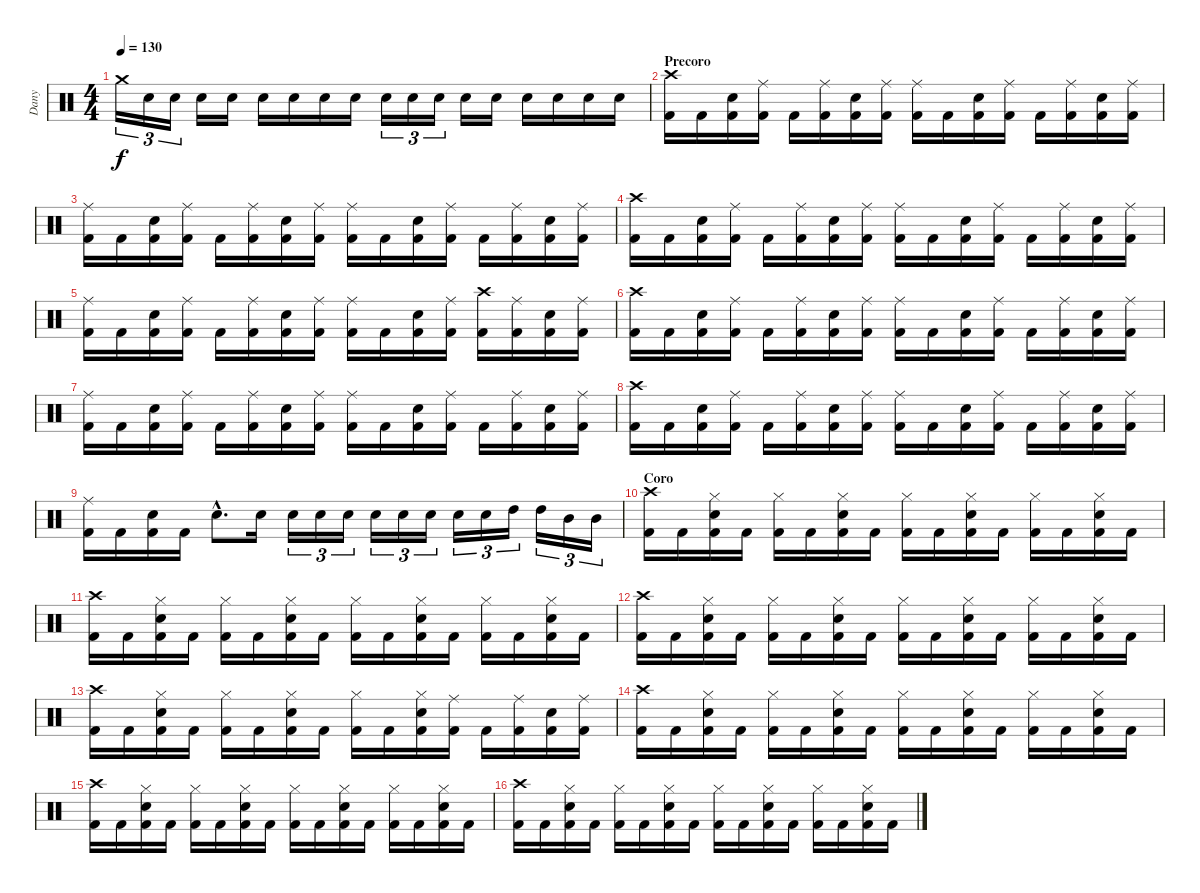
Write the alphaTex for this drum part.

\track ("Dany" "Dany") {instrument percussion}
\staff {score}
\articulation defaults
\ts (4 4)
\tempo 130
\clef neutral
\ks c "Crash medium (hit)".16{tu (3 2) dy f} "Electric Snare (hit)".16{tu (3 2)} "Electric Snare (hit)".16{tu (3 2)} "Electric Snare (hit)".16 "Electric Snare (hit)".16 "Electric Snare (hit)".16 "Electric Snare (hit)".16 "Electric Snare (hit)".16 "Electric Snare (hit)".16 "Electric Snare (hit)".16{tu (3 2)} "Electric Snare (hit)".16{tu (3 2)} "Electric Snare (hit)".16{tu (3 2)} "Electric Snare (hit)".16 "Electric Snare (hit)".16 "Electric Snare (hit)".16 "Electric Snare (hit)".16 "Electric Snare (hit)".16 "Electric Snare (hit)".16
|
\section ("" "Precoro")
("Kick (hit) 2" "Crash high (hit)").16 "Kick (hit) 2".16 ("Kick (hit) 2" "Electric Snare (hit)").16 ("Kick (hit) 2" "Ride (middle)").16 "Kick (hit) 2".16 ("Kick (hit) 2" "Ride (middle)").16 ("Kick (hit) 2" "Electric Snare (hit)").16 ("Kick (hit) 2" "Ride (middle)").16 ("Kick (hit) 2" "Ride (middle)").16 "Kick (hit) 2".16 ("Kick (hit) 2" "Electric Snare (hit)").16 ("Kick (hit) 2" "Ride (middle)").16 "Kick (hit) 2".16 ("Kick (hit) 2" "Ride (middle)").16 ("Kick (hit) 2" "Electric Snare (hit)").16 ("Kick (hit) 2" "Ride (middle)").16 |
("Kick (hit) 2" "Ride (middle)").16 "Kick (hit) 2".16 ("Kick (hit) 2" "Electric Snare (hit)").16 ("Kick (hit) 2" "Ride (middle)").16 "Kick (hit) 2".16 ("Kick (hit) 2" "Ride (middle)").16 ("Kick (hit) 2" "Electric Snare (hit)").16 ("Kick (hit) 2" "Ride (middle)").16 ("Kick (hit) 2" "Ride (middle)").16 "Kick (hit) 2".16 ("Kick (hit) 2" "Electric Snare (hit)").16 ("Kick (hit) 2" "Ride (middle)").16 "Kick (hit) 2".16 ("Kick (hit) 2" "Ride (middle)").16 ("Kick (hit) 2" "Electric Snare (hit)").16 ("Kick (hit) 2" "Ride (middle)").16 |
("Kick (hit) 2" "Crash high (hit)").16 "Kick (hit) 2".16 ("Kick (hit) 2" "Electric Snare (hit)").16 ("Kick (hit) 2" "Ride (middle)").16 "Kick (hit) 2".16 ("Kick (hit) 2" "Ride (middle)").16 ("Kick (hit) 2" "Electric Snare (hit)").16 ("Kick (hit) 2" "Ride (middle)").16 ("Kick (hit) 2" "Ride (middle)").16 "Kick (hit) 2".16 ("Kick (hit) 2" "Electric Snare (hit)").16 ("Kick (hit) 2" "Ride (middle)").16 "Kick (hit) 2".16 ("Kick (hit) 2" "Ride (middle)").16 ("Kick (hit) 2" "Electric Snare (hit)").16 ("Kick (hit) 2" "Ride (middle)").16 |
("Kick (hit) 2" "Ride (middle)").16 "Kick (hit) 2".16 ("Kick (hit) 2" "Electric Snare (hit)").16 ("Kick (hit) 2" "Ride (middle)").16 "Kick (hit) 2".16 ("Kick (hit) 2" "Ride (middle)").16 ("Kick (hit) 2" "Electric Snare (hit)").16 ("Kick (hit) 2" "Ride (middle)").16 ("Kick (hit) 2" "Ride (middle)").16 "Kick (hit) 2".16 ("Kick (hit) 2" "Electric Snare (hit)").16 ("Kick (hit) 2" "Ride (middle)").16 ("Kick (hit) 2" "Crash high (hit)").16 ("Kick (hit) 2" "Ride (middle)").16 ("Kick (hit) 2" "Electric Snare (hit)").16 ("Kick (hit) 2" "Ride (middle)").16 |
("Kick (hit) 2" "Crash high (hit)").16 "Kick (hit) 2".16 ("Kick (hit) 2" "Electric Snare (hit)").16 ("Kick (hit) 2" "Ride (middle)").16 "Kick (hit) 2".16 ("Kick (hit) 2" "Ride (middle)").16 ("Kick (hit) 2" "Electric Snare (hit)").16 ("Kick (hit) 2" "Ride (middle)").16 ("Kick (hit) 2" "Ride (middle)").16 "Kick (hit) 2".16 ("Kick (hit) 2" "Electric Snare (hit)").16 ("Kick (hit) 2" "Ride (middle)").16 "Kick (hit) 2".16 ("Kick (hit) 2" "Ride (middle)").16 ("Kick (hit) 2" "Electric Snare (hit)").16 ("Kick (hit) 2" "Ride (middle)").16 |
("Kick (hit) 2" "Ride (middle)").16 "Kick (hit) 2".16 ("Kick (hit) 2" "Electric Snare (hit)").16 ("Kick (hit) 2" "Ride (middle)").16 "Kick (hit) 2".16 ("Kick (hit) 2" "Ride (middle)").16 ("Kick (hit) 2" "Electric Snare (hit)").16 ("Kick (hit) 2" "Ride (middle)").16 ("Kick (hit) 2" "Ride (middle)").16 "Kick (hit) 2".16 ("Kick (hit) 2" "Electric Snare (hit)").16 ("Kick (hit) 2" "Ride (middle)").16 "Kick (hit) 2".16 ("Kick (hit) 2" "Ride (middle)").16 ("Kick (hit) 2" "Electric Snare (hit)").16 ("Kick (hit) 2" "Ride (middle)").16 |
("Kick (hit) 2" "Crash high (hit)").16 "Kick (hit) 2".16 ("Kick (hit) 2" "Electric Snare (hit)").16 ("Kick (hit) 2" "Ride (middle)").16 "Kick (hit) 2".16 ("Kick (hit) 2" "Ride (middle)").16 ("Kick (hit) 2" "Electric Snare (hit)").16 ("Kick (hit) 2" "Ride (middle)").16 ("Kick (hit) 2" "Ride (middle)").16 "Kick (hit) 2".16 ("Kick (hit) 2" "Electric Snare (hit)").16 ("Kick (hit) 2" "Ride (middle)").16 "Kick (hit) 2".16 ("Kick (hit) 2" "Ride (middle)").16 ("Kick (hit) 2" "Electric Snare (hit)").16 ("Kick (hit) 2" "Ride (middle)").16 |
("Kick (hit) 2" "Ride (middle)").16 "Kick (hit) 2".16 ("Kick (hit) 2" "Electric Snare (hit)").16 "Kick (hit) 2".16 "Electric Snare (hit)"{hac}.8{d} "Electric Snare (hit)".16 "Electric Snare (hit)".16{tu (3 2)} "Electric Snare (hit)".16{tu (3 2)} "Electric Snare (hit)".16{tu (3 2)} "Electric Snare (hit)".16{tu (3 2)} "Electric Snare (hit)".16{tu (3 2)} "Electric Snare (hit)".16{tu (3 2)} "Electric Snare (hit)".16{tu (3 2)} "Electric Snare (hit)".16{tu (3 2)} "High Tom (hit)".16{tu (3 2)} "High Tom (hit)".16{tu (3 2)} "Mid Tom (hit)".16{tu (3 2)} "Mid Tom (hit)".16{tu (3 2)} |
\section ("" "Coro")
("Kick (hit) 2" "Crash high (hit)").16 "Kick (hit) 2".16 ("Kick (hit) 2" "Electric Snare (hit)" "Hi-Hat (closed)").16 "Kick (hit) 2".16 ("Kick (hit) 2" "Hi-Hat (closed)").16 "Kick (hit) 2".16 ("Kick (hit) 2" "Electric Snare (hit)" "Hi-Hat (closed)").16 "Kick (hit) 2".16 ("Kick (hit) 2" "Hi-Hat (closed)").16 "Kick (hit) 2".16 ("Kick (hit) 2" "Electric Snare (hit)" "Hi-Hat (closed)").16 "Kick (hit) 2".16 ("Kick (hit) 2" "Hi-Hat (closed)").16 "Kick (hit) 2".16 ("Kick (hit) 2" "Electric Snare (hit)" "Hi-Hat (closed)").16 "Kick (hit) 2".16 |
("Kick (hit) 2" "Crash high (hit)").16 "Kick (hit) 2".16 ("Kick (hit) 2" "Electric Snare (hit)" "Hi-Hat (closed)").16 "Kick (hit) 2".16 ("Kick (hit) 2" "Hi-Hat (closed)").16 "Kick (hit) 2".16 ("Kick (hit) 2" "Electric Snare (hit)" "Hi-Hat (closed)").16 "Kick (hit) 2".16 ("Kick (hit) 2" "Hi-Hat (closed)").16 "Kick (hit) 2".16 ("Kick (hit) 2" "Electric Snare (hit)" "Hi-Hat (closed)").16 "Kick (hit) 2".16 ("Kick (hit) 2" "Hi-Hat (closed)").16 "Kick (hit) 2".16 ("Kick (hit) 2" "Electric Snare (hit)" "Hi-Hat (closed)").16 "Kick (hit) 2".16 |
("Kick (hit) 2" "Crash high (hit)").16 "Kick (hit) 2".16 ("Kick (hit) 2" "Electric Snare (hit)" "Hi-Hat (closed)").16 "Kick (hit) 2".16 ("Kick (hit) 2" "Hi-Hat (closed)").16 "Kick (hit) 2".16 ("Kick (hit) 2" "Electric Snare (hit)" "Hi-Hat (closed)").16 "Kick (hit) 2".16 ("Kick (hit) 2" "Hi-Hat (closed)").16 "Kick (hit) 2".16 ("Kick (hit) 2" "Electric Snare (hit)" "Hi-Hat (closed)").16 "Kick (hit) 2".16 ("Kick (hit) 2" "Hi-Hat (closed)").16 "Kick (hit) 2".16 ("Kick (hit) 2" "Electric Snare (hit)" "Hi-Hat (closed)").16 "Kick (hit) 2".16 |
("Kick (hit) 2" "Crash high (hit)").16 "Kick (hit) 2".16 ("Kick (hit) 2" "Electric Snare (hit)" "Hi-Hat (closed)").16 "Kick (hit) 2".16 ("Kick (hit) 2" "Hi-Hat (closed)").16 "Kick (hit) 2".16 ("Kick (hit) 2" "Electric Snare (hit)" "Hi-Hat (closed)").16 "Kick (hit) 2".16 ("Kick (hit) 2" "Hi-Hat (closed)").16 "Kick (hit) 2".16 ("Kick (hit) 2" "Electric Snare (hit)" "Hi-Hat (closed)").16 ("Kick (hit) 2" "Ride (middle)").16 "Kick (hit) 2".16 ("Kick (hit) 2" "Ride (middle)").16 ("Kick (hit) 2" "Electric Snare (hit)").16 ("Kick (hit) 2" "Ride (middle)").16 |
("Kick (hit) 2" "Crash high (hit)").16 "Kick (hit) 2".16 ("Kick (hit) 2" "Electric Snare (hit)" "Hi-Hat (closed)").16 "Kick (hit) 2".16 ("Kick (hit) 2" "Hi-Hat (closed)").16 "Kick (hit) 2".16 ("Kick (hit) 2" "Electric Snare (hit)" "Hi-Hat (closed)").16 "Kick (hit) 2".16 ("Kick (hit) 2" "Hi-Hat (closed)").16 "Kick (hit) 2".16 ("Kick (hit) 2" "Electric Snare (hit)" "Hi-Hat (closed)").16 "Kick (hit) 2".16 ("Kick (hit) 2" "Hi-Hat (closed)").16 "Kick (hit) 2".16 ("Kick (hit) 2" "Electric Snare (hit)" "Hi-Hat (closed)").16 "Kick (hit) 2".16 |
("Kick (hit) 2" "Crash high (hit)").16 "Kick (hit) 2".16 ("Kick (hit) 2" "Electric Snare (hit)" "Hi-Hat (closed)").16 "Kick (hit) 2".16 ("Kick (hit) 2" "Hi-Hat (closed)").16 "Kick (hit) 2".16 ("Kick (hit) 2" "Electric Snare (hit)" "Hi-Hat (closed)").16 "Kick (hit) 2".16 ("Kick (hit) 2" "Hi-Hat (closed)").16 "Kick (hit) 2".16 ("Kick (hit) 2" "Electric Snare (hit)" "Hi-Hat (closed)").16 "Kick (hit) 2".16 ("Kick (hit) 2" "Hi-Hat (closed)").16 "Kick (hit) 2".16 ("Kick (hit) 2" "Electric Snare (hit)" "Hi-Hat (closed)").16 "Kick (hit) 2".16 |
("Kick (hit) 2" "Crash high (hit)").16 "Kick (hit) 2".16 ("Kick (hit) 2" "Electric Snare (hit)" "Hi-Hat (closed)").16 "Kick (hit) 2".16 ("Kick (hit) 2" "Hi-Hat (closed)").16 "Kick (hit) 2".16 ("Kick (hit) 2" "Electric Snare (hit)" "Hi-Hat (closed)").16 "Kick (hit) 2".16 ("Kick (hit) 2" "Hi-Hat (closed)").16 "Kick (hit) 2".16 ("Kick (hit) 2" "Electric Snare (hit)" "Hi-Hat (closed)").16 "Kick (hit) 2".16 ("Kick (hit) 2" "Hi-Hat (closed)").16 "Kick (hit) 2".16 ("Kick (hit) 2" "Electric Snare (hit)" "Hi-Hat (closed)").16 "Kick (hit) 2".16
